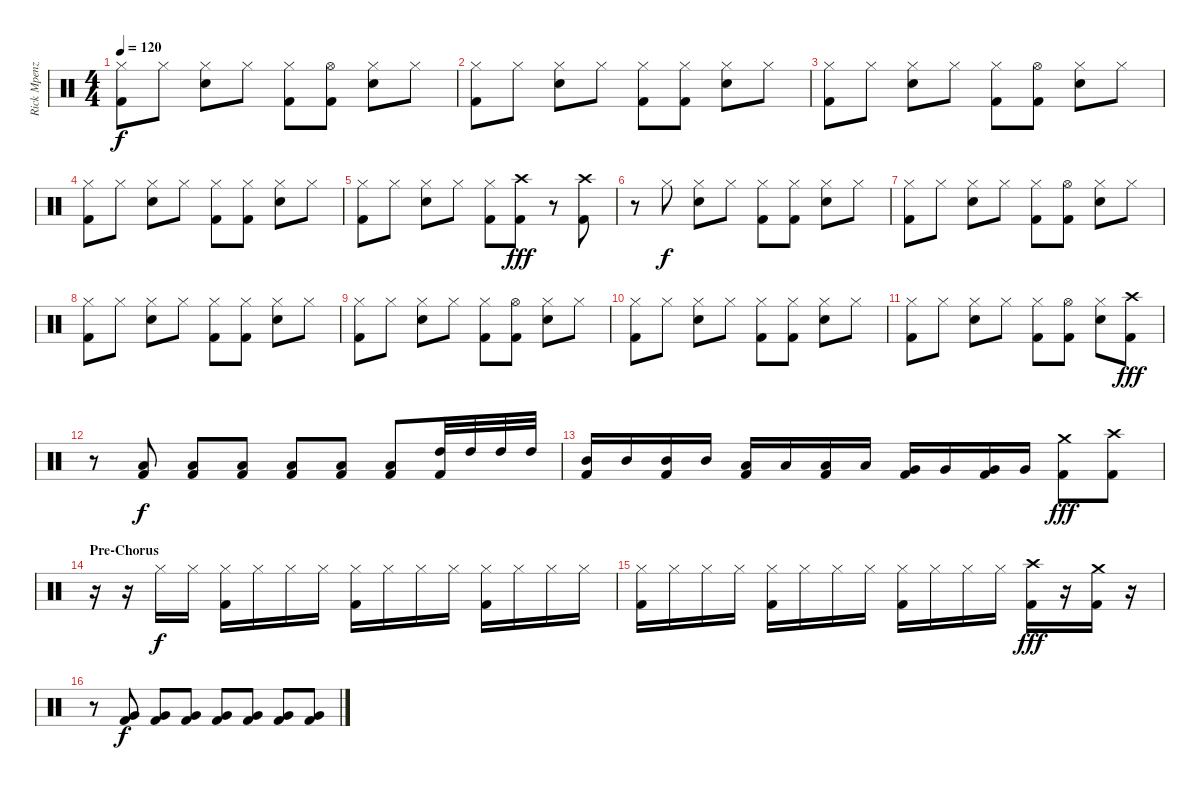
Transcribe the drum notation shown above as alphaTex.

\track ("Rick Mpenza" "Rick Mpenz") {instrument percussion}
\staff {score}
\articulation defaults
\ts (4 4)
\tempo 120
\clef neutral
\ks c
("Hi-Hat (closed)" "Kick (hit) 2").8{dy f} "Hi-Hat (closed)".8 ("Hi-Hat (closed)" "Snare (hit) 2").8 "Hi-Hat (closed)".8 ("Hi-Hat (closed)" "Kick (hit) 2").8 ("Hi-Hat (open)" "Kick (hit) 2").8 ("Hi-Hat (closed)" "Snare (hit) 2").8 "Hi-Hat (closed)".8 |
("Hi-Hat (closed)" "Kick (hit) 2").8 "Hi-Hat (closed)".8 ("Hi-Hat (closed)" "Snare (hit) 2").8 "Hi-Hat (closed)".8 ("Hi-Hat (closed)" "Kick (hit) 2").8 ("Hi-Hat (closed)" "Kick (hit) 2").8 ("Hi-Hat (closed)" "Snare (hit) 2").8 "Hi-Hat (closed)".8 |
("Hi-Hat (closed)" "Kick (hit) 2").8 "Hi-Hat (closed)".8 ("Hi-Hat (closed)" "Snare (hit) 2").8 "Hi-Hat (closed)".8 ("Hi-Hat (closed)" "Kick (hit) 2").8 ("Hi-Hat (open)" "Kick (hit) 2").8 ("Hi-Hat (closed)" "Snare (hit) 2").8 "Hi-Hat (closed)".8 |
("Hi-Hat (closed)" "Kick (hit) 2").8 "Hi-Hat (closed)".8 ("Hi-Hat (closed)" "Snare (hit) 2").8 "Hi-Hat (closed)".8 ("Hi-Hat (closed)" "Kick (hit) 2").8 ("Hi-Hat (closed)" "Kick (hit) 2").8 ("Hi-Hat (closed)" "Snare (hit) 2").8 "Hi-Hat (closed)".8 |
("Hi-Hat (closed)" "Kick (hit) 2").8 "Hi-Hat (closed)".8 ("Hi-Hat (closed)" "Snare (hit) 2").8 "Hi-Hat (closed)".8 ("Hi-Hat (closed)" "Kick (hit) 2").8 ("Crash high (hit)" "Kick (hit) 2").8{dy fff} r.8 ("Crash high (hit)" "Kick (hit) 2").8 |
r.8 "Hi-Hat (closed)".8{dy f} ("Hi-Hat (closed)" "Snare (hit) 2").8 "Hi-Hat (closed)".8 ("Hi-Hat (closed)" "Kick (hit) 2").8 ("Hi-Hat (closed)" "Kick (hit) 2").8 ("Hi-Hat (closed)" "Snare (hit) 2").8 "Hi-Hat (closed)".8 |
("Hi-Hat (closed)" "Kick (hit) 2").8 "Hi-Hat (closed)".8 ("Hi-Hat (closed)" "Snare (hit) 2").8 "Hi-Hat (closed)".8 ("Hi-Hat (closed)" "Kick (hit) 2").8 ("Hi-Hat (open)" "Kick (hit) 2").8 ("Hi-Hat (closed)" "Snare (hit) 2").8 "Hi-Hat (closed)".8 |
("Hi-Hat (closed)" "Kick (hit) 2").8 "Hi-Hat (closed)".8 ("Hi-Hat (closed)" "Snare (hit) 2").8 "Hi-Hat (closed)".8 ("Hi-Hat (closed)" "Kick (hit) 2").8 ("Hi-Hat (closed)" "Kick (hit) 2").8 ("Hi-Hat (closed)" "Snare (hit) 2").8 "Hi-Hat (closed)".8 |
("Hi-Hat (closed)" "Kick (hit) 2").8 "Hi-Hat (closed)".8 ("Hi-Hat (closed)" "Snare (hit) 2").8 "Hi-Hat (closed)".8 ("Hi-Hat (closed)" "Kick (hit) 2").8 ("Hi-Hat (open)" "Kick (hit) 2").8 ("Hi-Hat (closed)" "Snare (hit) 2").8 "Hi-Hat (closed)".8 |
("Hi-Hat (closed)" "Kick (hit) 2").8 "Hi-Hat (closed)".8 ("Hi-Hat (closed)" "Snare (hit) 2").8 "Hi-Hat (closed)".8 ("Hi-Hat (closed)" "Kick (hit) 2").8 ("Hi-Hat (closed)" "Kick (hit) 2").8 ("Hi-Hat (closed)" "Snare (hit) 2").8 "Hi-Hat (closed)".8 |
("Hi-Hat (closed)" "Kick (hit) 2").8 "Hi-Hat (closed)".8 ("Hi-Hat (closed)" "Snare (hit) 2").8 "Hi-Hat (closed)".8 ("Hi-Hat (closed)" "Kick (hit) 2").8 ("Hi-Hat (open)" "Kick (hit) 2").8 ("Hi-Hat (closed)" "Snare (hit) 2").8 ("Crash high (hit)" "Kick (hit) 2").8{dy fff} |
r.8 ("Low Floor Tom (hit)" "Kick (hit) 2").8{dy f} ("Low Floor Tom (hit)" "Kick (hit) 2").8 ("Low Floor Tom (hit)" "Kick (hit) 2").8 ("Low Floor Tom (hit)" "Kick (hit) 2").8 ("Low Floor Tom (hit)" "Kick (hit) 2").8 ("Low Floor Tom (hit)" "Kick (hit) 2").8 ("High Tom (hit)" "Kick (hit) 2").32 "High Tom (hit)".32 "High Tom (hit)".32 "High Tom (hit)".32 |
("Mid Tom (hit)" "Kick (hit) 2").16 "Mid Tom (hit)".16 ("Mid Tom (hit)" "Kick (hit) 2").16 "Mid Tom (hit)".16 ("Low Tom (hit)" "Kick (hit) 2").16 "Low Tom (hit)".16 ("Low Tom (hit)" "Kick (hit) 2").16 "Low Tom (hit)".16 ("Very Low Tom (hit)" "Kick (hit) 2").16 "Very Low Tom (hit)".16 ("Very Low Tom (hit)" "Kick (hit) 2").16 "Very Low Tom (hit)".16 ("Crash medium (hit)" "Kick (hit) 2").8{dy fff} ("Crash high (hit)" "Kick (hit) 2").8 |
\section ("" "Pre-Chorus")
r.16 r.16 "Hi-Hat (closed)".16{dy f} "Hi-Hat (closed)".16 ("Hi-Hat (closed)" "Kick (hit) 2").16 "Hi-Hat (closed)".16 "Hi-Hat (closed)".16 "Hi-Hat (closed)".16 ("Hi-Hat (closed)" "Kick (hit) 2").16 "Hi-Hat (closed)".16 "Hi-Hat (closed)".16 "Hi-Hat (closed)".16 ("Hi-Hat (closed)" "Kick (hit) 2").16 "Hi-Hat (closed)".16 "Hi-Hat (closed)".16 "Hi-Hat (closed)".16 |
("Hi-Hat (closed)" "Kick (hit) 2").16 "Hi-Hat (closed)".16 "Hi-Hat (closed)".16 "Hi-Hat (closed)".16 ("Hi-Hat (closed)" "Kick (hit) 2").16 "Hi-Hat (closed)".16 "Hi-Hat (closed)".16 "Hi-Hat (closed)".16 ("Hi-Hat (closed)" "Kick (hit) 2").16 "Hi-Hat (closed)".16 "Hi-Hat (closed)".16 "Hi-Hat (closed)".16 ("Crash high (hit)" "Kick (hit) 2").16{dy fff} r.16 ("Crash medium (hit)" "Kick (hit) 2").16 r.16 |
r.8 ("Very Low Tom (hit)" "Kick (hit) 2").8{dy f} ("Very Low Tom (hit)" "Kick (hit) 2").8 ("Very Low Tom (hit)" "Kick (hit) 2").8 ("Very Low Tom (hit)" "Kick (hit) 2").8 ("Very Low Tom (hit)" "Kick (hit) 2").8 ("Very Low Tom (hit)" "Kick (hit) 2").8 ("Very Low Tom (hit)" "Kick (hit) 2").8
